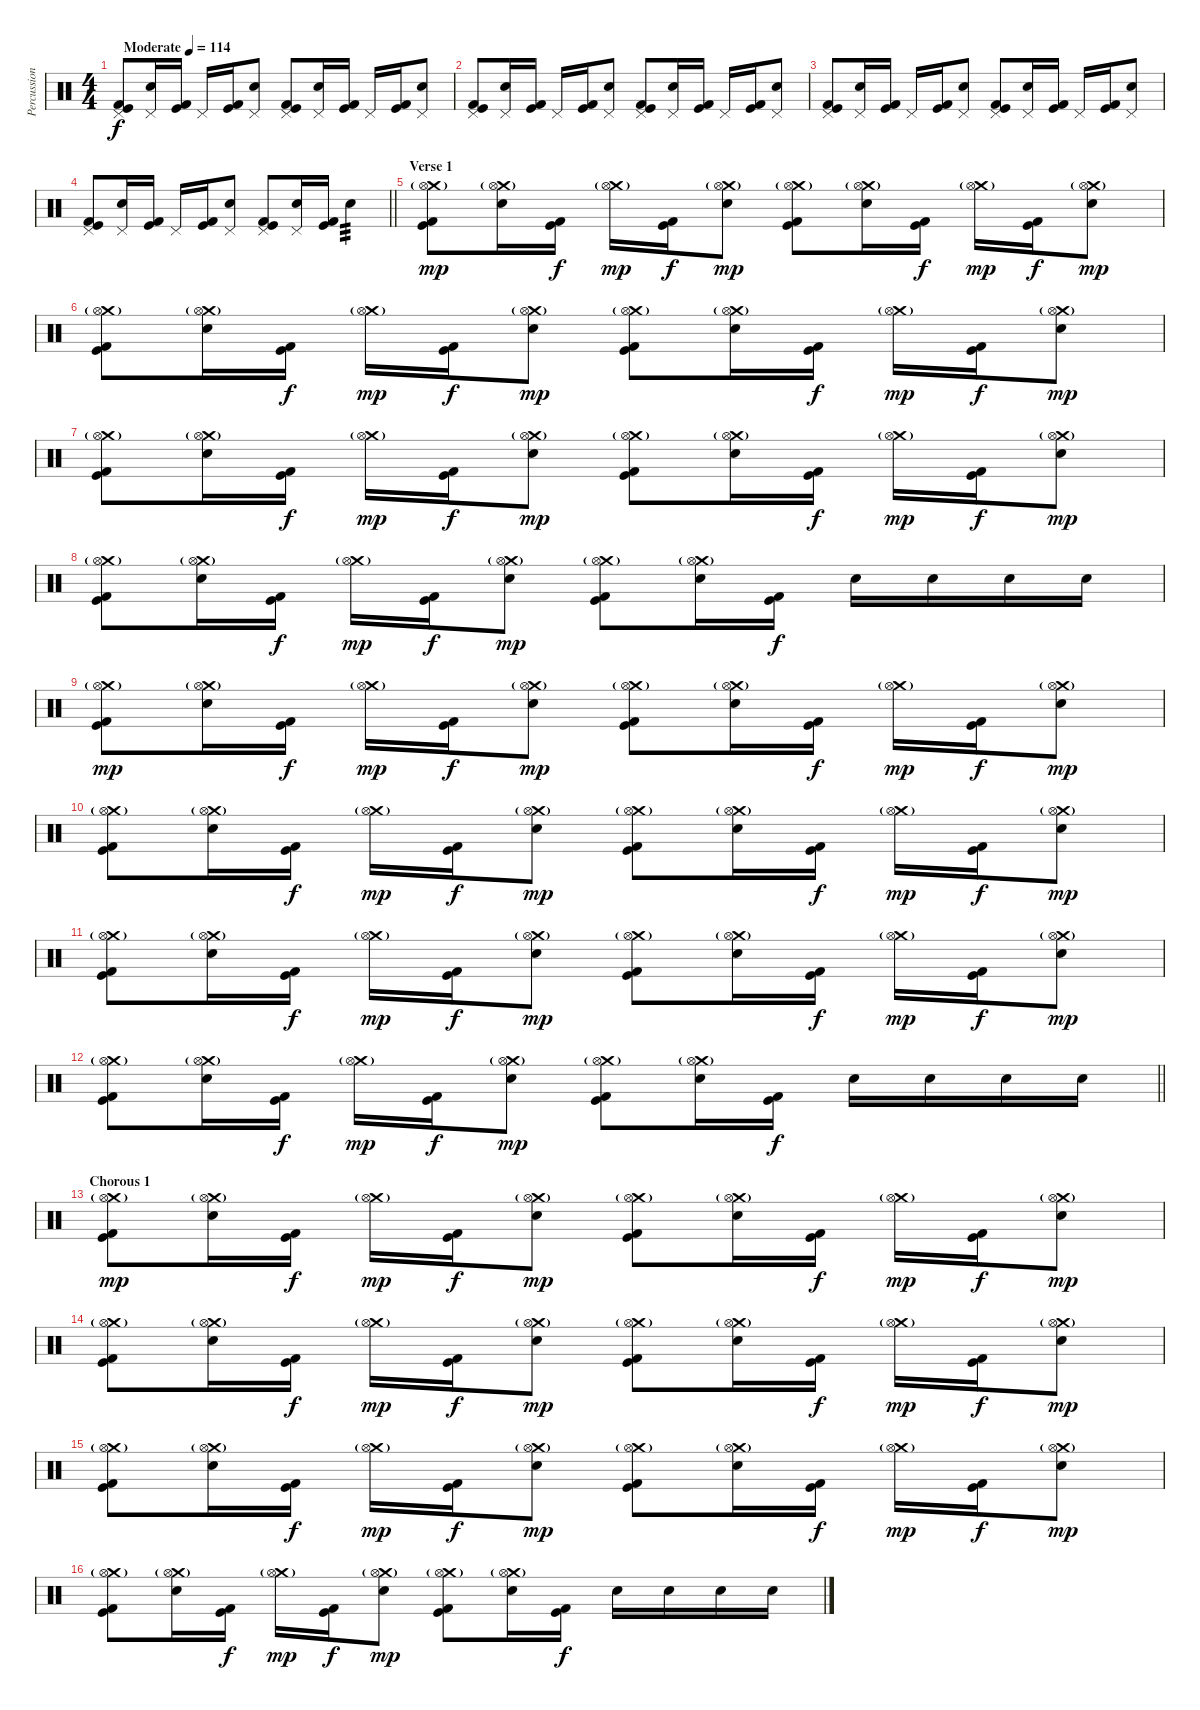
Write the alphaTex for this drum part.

\track ("Percussion" "Percussion") {instrument percussion}
\staff {score}
\articulation defaults
\ts (4 4)
\tempo (114 "Moderate")
\clef neutral
\ks c
("Pedal Hi-Hat (hit)" "Kick (hit)" "Kick (hit) 2").8{dy f} ("Pedal Hi-Hat (hit)" "Electric Snare (hit)").16 ("Kick (hit)" "Kick (hit) 2").16 "Pedal Hi-Hat (hit)".16 ("Kick (hit)" "Kick (hit) 2").16 ("Pedal Hi-Hat (hit)" "Electric Snare (hit)").8 ("Pedal Hi-Hat (hit)" "Kick (hit)" "Kick (hit) 2").8 ("Pedal Hi-Hat (hit)" "Electric Snare (hit)").16 ("Kick (hit)" "Kick (hit) 2").16 "Pedal Hi-Hat (hit)".16 ("Kick (hit)" "Kick (hit) 2").16 ("Pedal Hi-Hat (hit)" "Electric Snare (hit)").8 |
("Pedal Hi-Hat (hit)" "Kick (hit)" "Kick (hit) 2").8 ("Pedal Hi-Hat (hit)" "Electric Snare (hit)").16 ("Kick (hit)" "Kick (hit) 2").16 "Pedal Hi-Hat (hit)".16 ("Kick (hit)" "Kick (hit) 2").16 ("Pedal Hi-Hat (hit)" "Electric Snare (hit)").8 ("Pedal Hi-Hat (hit)" "Kick (hit)" "Kick (hit) 2").8 ("Pedal Hi-Hat (hit)" "Electric Snare (hit)").16 ("Kick (hit)" "Kick (hit) 2").16 "Pedal Hi-Hat (hit)".16 ("Kick (hit)" "Kick (hit) 2").16 ("Pedal Hi-Hat (hit)" "Electric Snare (hit)").8 |
("Pedal Hi-Hat (hit)" "Kick (hit)" "Kick (hit) 2").8 ("Pedal Hi-Hat (hit)" "Electric Snare (hit)").16 ("Kick (hit)" "Kick (hit) 2").16 "Pedal Hi-Hat (hit)".16 ("Kick (hit)" "Kick (hit) 2").16 ("Pedal Hi-Hat (hit)" "Electric Snare (hit)").8 ("Pedal Hi-Hat (hit)" "Kick (hit)" "Kick (hit) 2").8 ("Pedal Hi-Hat (hit)" "Electric Snare (hit)").16 ("Kick (hit)" "Kick (hit) 2").16 "Pedal Hi-Hat (hit)".16 ("Kick (hit)" "Kick (hit) 2").16 ("Pedal Hi-Hat (hit)" "Electric Snare (hit)").8 |
\barLineRight lightlight
("Pedal Hi-Hat (hit)" "Kick (hit)" "Kick (hit) 2").8 ("Pedal Hi-Hat (hit)" "Electric Snare (hit)").16 ("Kick (hit)" "Kick (hit) 2").16 "Pedal Hi-Hat (hit)".16 ("Kick (hit)" "Kick (hit) 2").16 ("Pedal Hi-Hat (hit)" "Electric Snare (hit)").8 ("Pedal Hi-Hat (hit)" "Kick (hit)" "Kick (hit) 2").8 ("Pedal Hi-Hat (hit)" "Electric Snare (hit)").16 ("Kick (hit)" "Kick (hit) 2").16 "Electric Snare (hit)".4{tp 3} |
\section ("" "Verse 1")
("Crash medium (hit)"{g} "Hi-Hat (open)" "Kick (hit)" "Kick (hit) 2").8{dy mp} ("Crash medium (hit)"{g} "Hi-Hat (open)" "Electric Snare (hit)").16 ("Kick (hit)" "Kick (hit) 2").16{dy f} ("Crash medium (hit)"{g} "Hi-Hat (open)").16{dy mp} ("Kick (hit)" "Kick (hit) 2").16{dy f} ("Crash medium (hit)"{g} "Hi-Hat (open)" "Electric Snare (hit)").8{dy mp} ("Crash medium (hit)"{g} "Hi-Hat (open)" "Kick (hit)" "Kick (hit) 2").8 ("Crash medium (hit)"{g} "Hi-Hat (open)" "Electric Snare (hit)").16 ("Kick (hit)" "Kick (hit) 2").16{dy f} ("Crash medium (hit)"{g} "Hi-Hat (open)").16{dy mp} ("Kick (hit)" "Kick (hit) 2").16{dy f} ("Crash medium (hit)"{g} "Hi-Hat (open)" "Electric Snare (hit)").8{dy mp} |
("Crash medium (hit)"{g} "Hi-Hat (open)" "Kick (hit)" "Kick (hit) 2").8 ("Crash medium (hit)"{g} "Hi-Hat (open)" "Electric Snare (hit)").16 ("Kick (hit)" "Kick (hit) 2").16{dy f} ("Crash medium (hit)"{g} "Hi-Hat (open)").16{dy mp} ("Kick (hit)" "Kick (hit) 2").16{dy f} ("Crash medium (hit)"{g} "Hi-Hat (open)" "Electric Snare (hit)").8{dy mp} ("Crash medium (hit)"{g} "Hi-Hat (open)" "Kick (hit)" "Kick (hit) 2").8 ("Crash medium (hit)"{g} "Hi-Hat (open)" "Electric Snare (hit)").16 ("Kick (hit)" "Kick (hit) 2").16{dy f} ("Crash medium (hit)"{g} "Hi-Hat (open)").16{dy mp} ("Kick (hit)" "Kick (hit) 2").16{dy f} ("Crash medium (hit)"{g} "Hi-Hat (open)" "Electric Snare (hit)").8{dy mp} |
("Crash medium (hit)"{g} "Hi-Hat (open)" "Kick (hit)" "Kick (hit) 2").8 ("Crash medium (hit)"{g} "Hi-Hat (open)" "Electric Snare (hit)").16 ("Kick (hit)" "Kick (hit) 2").16{dy f} ("Crash medium (hit)"{g} "Hi-Hat (open)").16{dy mp} ("Kick (hit)" "Kick (hit) 2").16{dy f} ("Crash medium (hit)"{g} "Hi-Hat (open)" "Electric Snare (hit)").8{dy mp} ("Crash medium (hit)"{g} "Hi-Hat (open)" "Kick (hit)" "Kick (hit) 2").8 ("Crash medium (hit)"{g} "Hi-Hat (open)" "Electric Snare (hit)").16 ("Kick (hit)" "Kick (hit) 2").16{dy f} ("Crash medium (hit)"{g} "Hi-Hat (open)").16{dy mp} ("Kick (hit)" "Kick (hit) 2").16{dy f} ("Crash medium (hit)"{g} "Hi-Hat (open)" "Electric Snare (hit)").8{dy mp} |
("Crash medium (hit)"{g} "Hi-Hat (open)" "Kick (hit)" "Kick (hit) 2").8 ("Crash medium (hit)"{g} "Hi-Hat (open)" "Electric Snare (hit)").16 ("Kick (hit)" "Kick (hit) 2").16{dy f} ("Crash medium (hit)"{g} "Hi-Hat (open)").16{dy mp} ("Kick (hit)" "Kick (hit) 2").16{dy f} ("Crash medium (hit)"{g} "Hi-Hat (open)" "Electric Snare (hit)").8{dy mp} ("Crash medium (hit)"{g} "Hi-Hat (open)" "Kick (hit)" "Kick (hit) 2").8 ("Crash medium (hit)"{g} "Hi-Hat (open)" "Electric Snare (hit)").16 ("Kick (hit)" "Kick (hit) 2").16{dy f} "Electric Snare (hit)".16 "Electric Snare (hit)".16 "Electric Snare (hit)".16 "Electric Snare (hit)".16 |
("Crash medium (hit)"{g} "Hi-Hat (open)" "Kick (hit)" "Kick (hit) 2").8{dy mp} ("Crash medium (hit)"{g} "Hi-Hat (open)" "Electric Snare (hit)").16 ("Kick (hit)" "Kick (hit) 2").16{dy f} ("Crash medium (hit)"{g} "Hi-Hat (open)").16{dy mp} ("Kick (hit)" "Kick (hit) 2").16{dy f} ("Crash medium (hit)"{g} "Hi-Hat (open)" "Electric Snare (hit)").8{dy mp} ("Crash medium (hit)"{g} "Hi-Hat (open)" "Kick (hit)" "Kick (hit) 2").8 ("Crash medium (hit)"{g} "Hi-Hat (open)" "Electric Snare (hit)").16 ("Kick (hit)" "Kick (hit) 2").16{dy f} ("Crash medium (hit)"{g} "Hi-Hat (open)").16{dy mp} ("Kick (hit)" "Kick (hit) 2").16{dy f} ("Crash medium (hit)"{g} "Hi-Hat (open)" "Electric Snare (hit)").8{dy mp} |
("Crash medium (hit)"{g} "Hi-Hat (open)" "Kick (hit)" "Kick (hit) 2").8 ("Crash medium (hit)"{g} "Hi-Hat (open)" "Electric Snare (hit)").16 ("Kick (hit)" "Kick (hit) 2").16{dy f} ("Crash medium (hit)"{g} "Hi-Hat (open)").16{dy mp} ("Kick (hit)" "Kick (hit) 2").16{dy f} ("Crash medium (hit)"{g} "Hi-Hat (open)" "Electric Snare (hit)").8{dy mp} ("Crash medium (hit)"{g} "Hi-Hat (open)" "Kick (hit)" "Kick (hit) 2").8 ("Crash medium (hit)"{g} "Hi-Hat (open)" "Electric Snare (hit)").16 ("Kick (hit)" "Kick (hit) 2").16{dy f} ("Crash medium (hit)"{g} "Hi-Hat (open)").16{dy mp} ("Kick (hit)" "Kick (hit) 2").16{dy f} ("Crash medium (hit)"{g} "Hi-Hat (open)" "Electric Snare (hit)").8{dy mp} |
("Crash medium (hit)"{g} "Hi-Hat (open)" "Kick (hit)" "Kick (hit) 2").8 ("Crash medium (hit)"{g} "Hi-Hat (open)" "Electric Snare (hit)").16 ("Kick (hit)" "Kick (hit) 2").16{dy f} ("Crash medium (hit)"{g} "Hi-Hat (open)").16{dy mp} ("Kick (hit)" "Kick (hit) 2").16{dy f} ("Crash medium (hit)"{g} "Hi-Hat (open)" "Electric Snare (hit)").8{dy mp} ("Crash medium (hit)"{g} "Hi-Hat (open)" "Kick (hit)" "Kick (hit) 2").8 ("Crash medium (hit)"{g} "Hi-Hat (open)" "Electric Snare (hit)").16 ("Kick (hit)" "Kick (hit) 2").16{dy f} ("Crash medium (hit)"{g} "Hi-Hat (open)").16{dy mp} ("Kick (hit)" "Kick (hit) 2").16{dy f} ("Crash medium (hit)"{g} "Hi-Hat (open)" "Electric Snare (hit)").8{dy mp} |
\barLineRight lightlight
("Crash medium (hit)"{g} "Hi-Hat (open)" "Kick (hit)" "Kick (hit) 2").8 ("Crash medium (hit)"{g} "Hi-Hat (open)" "Electric Snare (hit)").16 ("Kick (hit)" "Kick (hit) 2").16{dy f} ("Crash medium (hit)"{g} "Hi-Hat (open)").16{dy mp} ("Kick (hit)" "Kick (hit) 2").16{dy f} ("Crash medium (hit)"{g} "Hi-Hat (open)" "Electric Snare (hit)").8{dy mp} ("Crash medium (hit)"{g} "Hi-Hat (open)" "Kick (hit)" "Kick (hit) 2").8 ("Crash medium (hit)"{g} "Hi-Hat (open)" "Electric Snare (hit)").16 ("Kick (hit)" "Kick (hit) 2").16{dy f} "Electric Snare (hit)".16 "Electric Snare (hit)".16 "Electric Snare (hit)".16 "Electric Snare (hit)".16 |
\section ("" "Chorous 1")
("Crash medium (hit)"{g} "Hi-Hat (open)" "Kick (hit)" "Kick (hit) 2").8{dy mp} ("Crash medium (hit)"{g} "Hi-Hat (open)" "Electric Snare (hit)").16 ("Kick (hit)" "Kick (hit) 2").16{dy f} ("Crash medium (hit)"{g} "Hi-Hat (open)").16{dy mp} ("Kick (hit)" "Kick (hit) 2").16{dy f} ("Crash medium (hit)"{g} "Hi-Hat (open)" "Electric Snare (hit)").8{dy mp} ("Crash medium (hit)"{g} "Hi-Hat (open)" "Kick (hit)" "Kick (hit) 2").8 ("Crash medium (hit)"{g} "Hi-Hat (open)" "Electric Snare (hit)").16 ("Kick (hit)" "Kick (hit) 2").16{dy f} ("Crash medium (hit)"{g} "Hi-Hat (open)").16{dy mp} ("Kick (hit)" "Kick (hit) 2").16{dy f} ("Crash medium (hit)"{g} "Hi-Hat (open)" "Electric Snare (hit)").8{dy mp} |
("Crash medium (hit)"{g} "Hi-Hat (open)" "Kick (hit)" "Kick (hit) 2").8 ("Crash medium (hit)"{g} "Hi-Hat (open)" "Electric Snare (hit)").16 ("Kick (hit)" "Kick (hit) 2").16{dy f} ("Crash medium (hit)"{g} "Hi-Hat (open)").16{dy mp} ("Kick (hit)" "Kick (hit) 2").16{dy f} ("Crash medium (hit)"{g} "Hi-Hat (open)" "Electric Snare (hit)").8{dy mp} ("Crash medium (hit)"{g} "Hi-Hat (open)" "Kick (hit)" "Kick (hit) 2").8 ("Crash medium (hit)"{g} "Hi-Hat (open)" "Electric Snare (hit)").16 ("Kick (hit)" "Kick (hit) 2").16{dy f} ("Crash medium (hit)"{g} "Hi-Hat (open)").16{dy mp} ("Kick (hit)" "Kick (hit) 2").16{dy f} ("Crash medium (hit)"{g} "Hi-Hat (open)" "Electric Snare (hit)").8{dy mp} |
("Crash medium (hit)"{g} "Hi-Hat (open)" "Kick (hit)" "Kick (hit) 2").8 ("Crash medium (hit)"{g} "Hi-Hat (open)" "Electric Snare (hit)").16 ("Kick (hit)" "Kick (hit) 2").16{dy f} ("Crash medium (hit)"{g} "Hi-Hat (open)").16{dy mp} ("Kick (hit)" "Kick (hit) 2").16{dy f} ("Crash medium (hit)"{g} "Hi-Hat (open)" "Electric Snare (hit)").8{dy mp} ("Crash medium (hit)"{g} "Hi-Hat (open)" "Kick (hit)" "Kick (hit) 2").8 ("Crash medium (hit)"{g} "Hi-Hat (open)" "Electric Snare (hit)").16 ("Kick (hit)" "Kick (hit) 2").16{dy f} ("Crash medium (hit)"{g} "Hi-Hat (open)").16{dy mp} ("Kick (hit)" "Kick (hit) 2").16{dy f} ("Crash medium (hit)"{g} "Hi-Hat (open)" "Electric Snare (hit)").8{dy mp} |
("Crash medium (hit)"{g} "Hi-Hat (open)" "Kick (hit)" "Kick (hit) 2").8 ("Crash medium (hit)"{g} "Hi-Hat (open)" "Electric Snare (hit)").16 ("Kick (hit)" "Kick (hit) 2").16{dy f} ("Crash medium (hit)"{g} "Hi-Hat (open)").16{dy mp} ("Kick (hit)" "Kick (hit) 2").16{dy f} ("Crash medium (hit)"{g} "Hi-Hat (open)" "Electric Snare (hit)").8{dy mp} ("Crash medium (hit)"{g} "Hi-Hat (open)" "Kick (hit)" "Kick (hit) 2").8 ("Crash medium (hit)"{g} "Hi-Hat (open)" "Electric Snare (hit)").16 ("Kick (hit)" "Kick (hit) 2").16{dy f} "Electric Snare (hit)".16 "Electric Snare (hit)".16 "Electric Snare (hit)".16 "Electric Snare (hit)".16
